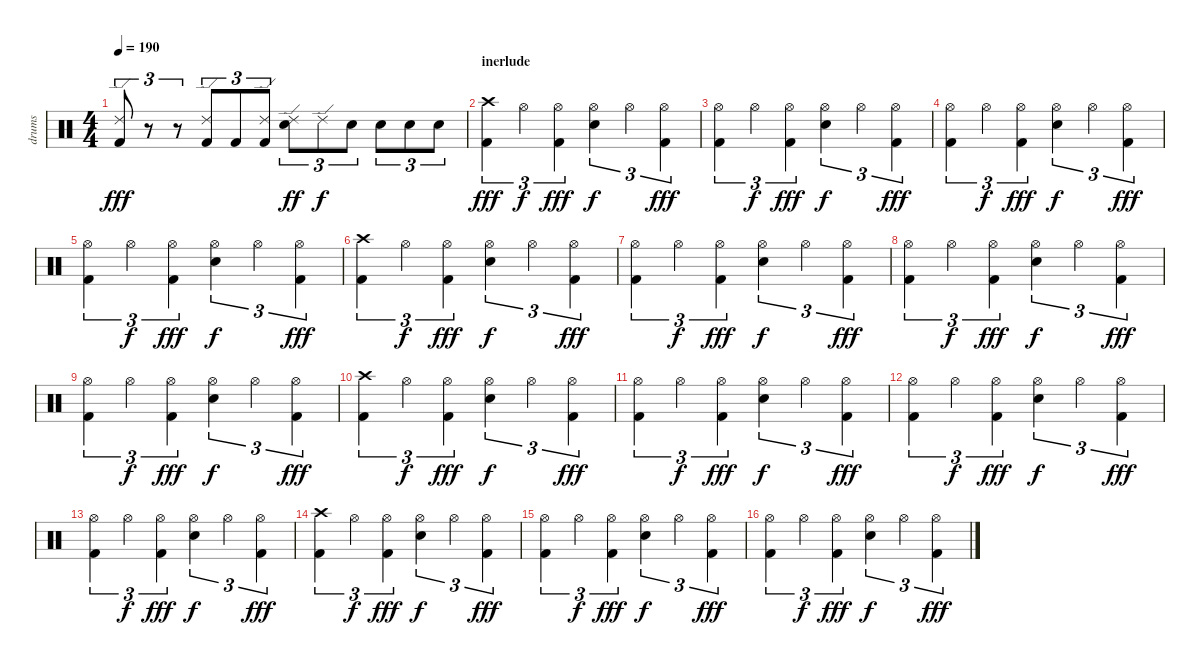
\track ("drums" "drums") {instrument percussion}
\staff {score}
\articulation defaults
\ts (4 4)
\tempo 190
\clef neutral
\ks c
("Ride (edge) 2" "Kick (hit) 2").8{tu (3 2) dy fff} r.8{tu (3 2)} r.8{tu (3 2)} ("Ride (edge) 2" "Kick (hit) 2").8{tu (3 2)} "Kick (hit) 2".8{tu (3 2)} ("Ride (edge) 2" "Kick (hit) 2").8{tu (3 2)} ("Ride (edge) 2" "Snare (hit) 2").8{tu (3 2) dy ff} "Ride (edge) 2".8{tu (3 2) dy f} "Snare (hit) 2".8{tu (3 2)} "Snare (hit) 2".8{tu (3 2)} "Snare (hit) 2".8{tu (3 2)} "Snare (hit) 2".8{tu (3 2)} |
\section ("" "inerlude")
("Crash high (hit)" "Kick (hit) 2").4{tu (3 2) dy fff} "Hi-Hat (open)".4{tu (3 2) dy f} ("Hi-Hat (open)" "Kick (hit) 2").4{tu (3 2) dy fff} ("Hi-Hat (open)" "Snare (hit) 2").4{tu (3 2) dy f} "Hi-Hat (open)".4{tu (3 2)} ("Hi-Hat (open)" "Kick (hit) 2").4{tu (3 2) dy fff} |
("Hi-Hat (open)" "Kick (hit) 2").4{tu (3 2)} "Hi-Hat (open)".4{tu (3 2) dy f} ("Hi-Hat (open)" "Kick (hit) 2").4{tu (3 2) dy fff} ("Hi-Hat (open)" "Snare (hit) 2").4{tu (3 2) dy f} "Hi-Hat (open)".4{tu (3 2)} ("Hi-Hat (open)" "Kick (hit) 2").4{tu (3 2) dy fff} |
("Hi-Hat (open)" "Kick (hit) 2").4{tu (3 2)} "Hi-Hat (open)".4{tu (3 2) dy f} ("Hi-Hat (open)" "Kick (hit) 2").4{tu (3 2) dy fff} ("Hi-Hat (open)" "Snare (hit) 2").4{tu (3 2) dy f} "Hi-Hat (open)".4{tu (3 2)} ("Hi-Hat (open)" "Kick (hit) 2").4{tu (3 2) dy fff} |
("Hi-Hat (open)" "Kick (hit) 2").4{tu (3 2)} "Hi-Hat (open)".4{tu (3 2) dy f} ("Hi-Hat (open)" "Kick (hit) 2").4{tu (3 2) dy fff} ("Hi-Hat (open)" "Snare (hit) 2").4{tu (3 2) dy f} "Hi-Hat (open)".4{tu (3 2)} ("Hi-Hat (open)" "Kick (hit) 2").4{tu (3 2) dy fff} |
("Crash high (hit)" "Kick (hit) 2").4{tu (3 2)} "Hi-Hat (open)".4{tu (3 2) dy f} ("Hi-Hat (open)" "Kick (hit) 2").4{tu (3 2) dy fff} ("Hi-Hat (open)" "Snare (hit) 2").4{tu (3 2) dy f} "Hi-Hat (open)".4{tu (3 2)} ("Hi-Hat (open)" "Kick (hit) 2").4{tu (3 2) dy fff} |
("Hi-Hat (open)" "Kick (hit) 2").4{tu (3 2)} "Hi-Hat (open)".4{tu (3 2) dy f} ("Hi-Hat (open)" "Kick (hit) 2").4{tu (3 2) dy fff} ("Hi-Hat (open)" "Snare (hit) 2").4{tu (3 2) dy f} "Hi-Hat (open)".4{tu (3 2)} ("Hi-Hat (open)" "Kick (hit) 2").4{tu (3 2) dy fff} |
("Hi-Hat (open)" "Kick (hit) 2").4{tu (3 2)} "Hi-Hat (open)".4{tu (3 2) dy f} ("Hi-Hat (open)" "Kick (hit) 2").4{tu (3 2) dy fff} ("Hi-Hat (open)" "Snare (hit) 2").4{tu (3 2) dy f} "Hi-Hat (open)".4{tu (3 2)} ("Hi-Hat (open)" "Kick (hit) 2").4{tu (3 2) dy fff} |
("Hi-Hat (open)" "Kick (hit) 2").4{tu (3 2)} "Hi-Hat (open)".4{tu (3 2) dy f} ("Hi-Hat (open)" "Kick (hit) 2").4{tu (3 2) dy fff} ("Hi-Hat (open)" "Snare (hit) 2").4{tu (3 2) dy f} "Hi-Hat (open)".4{tu (3 2)} ("Hi-Hat (open)" "Kick (hit) 2").4{tu (3 2) dy fff} |
("Crash high (hit)" "Kick (hit) 2").4{tu (3 2)} "Hi-Hat (open)".4{tu (3 2) dy f} ("Hi-Hat (open)" "Kick (hit) 2").4{tu (3 2) dy fff} ("Hi-Hat (open)" "Snare (hit) 2").4{tu (3 2) dy f} "Hi-Hat (open)".4{tu (3 2)} ("Hi-Hat (open)" "Kick (hit) 2").4{tu (3 2) dy fff} |
("Hi-Hat (open)" "Kick (hit) 2").4{tu (3 2)} "Hi-Hat (open)".4{tu (3 2) dy f} ("Hi-Hat (open)" "Kick (hit) 2").4{tu (3 2) dy fff} ("Hi-Hat (open)" "Snare (hit) 2").4{tu (3 2) dy f} "Hi-Hat (open)".4{tu (3 2)} ("Hi-Hat (open)" "Kick (hit) 2").4{tu (3 2) dy fff} |
("Hi-Hat (open)" "Kick (hit) 2").4{tu (3 2)} "Hi-Hat (open)".4{tu (3 2) dy f} ("Hi-Hat (open)" "Kick (hit) 2").4{tu (3 2) dy fff} ("Hi-Hat (open)" "Snare (hit) 2").4{tu (3 2) dy f} "Hi-Hat (open)".4{tu (3 2)} ("Hi-Hat (open)" "Kick (hit) 2").4{tu (3 2) dy fff} |
("Hi-Hat (open)" "Kick (hit) 2").4{tu (3 2)} "Hi-Hat (open)".4{tu (3 2) dy f} ("Hi-Hat (open)" "Kick (hit) 2").4{tu (3 2) dy fff} ("Hi-Hat (open)" "Snare (hit) 2").4{tu (3 2) dy f} "Hi-Hat (open)".4{tu (3 2)} ("Hi-Hat (open)" "Kick (hit) 2").4{tu (3 2) dy fff} |
("Crash high (hit)" "Kick (hit) 2").4{tu (3 2)} "Hi-Hat (open)".4{tu (3 2) dy f} ("Hi-Hat (open)" "Kick (hit) 2").4{tu (3 2) dy fff} ("Hi-Hat (open)" "Snare (hit) 2").4{tu (3 2) dy f} "Hi-Hat (open)".4{tu (3 2)} ("Hi-Hat (open)" "Kick (hit) 2").4{tu (3 2) dy fff} |
("Hi-Hat (open)" "Kick (hit) 2").4{tu (3 2)} "Hi-Hat (open)".4{tu (3 2) dy f} ("Hi-Hat (open)" "Kick (hit) 2").4{tu (3 2) dy fff} ("Hi-Hat (open)" "Snare (hit) 2").4{tu (3 2) dy f} "Hi-Hat (open)".4{tu (3 2)} ("Hi-Hat (open)" "Kick (hit) 2").4{tu (3 2) dy fff} |
("Hi-Hat (open)" "Kick (hit) 2").4{tu (3 2)} "Hi-Hat (open)".4{tu (3 2) dy f} ("Hi-Hat (open)" "Kick (hit) 2").4{tu (3 2) dy fff} ("Hi-Hat (open)" "Snare (hit) 2").4{tu (3 2) dy f} "Hi-Hat (open)".4{tu (3 2)} ("Hi-Hat (open)" "Kick (hit) 2").4{tu (3 2) dy fff}
